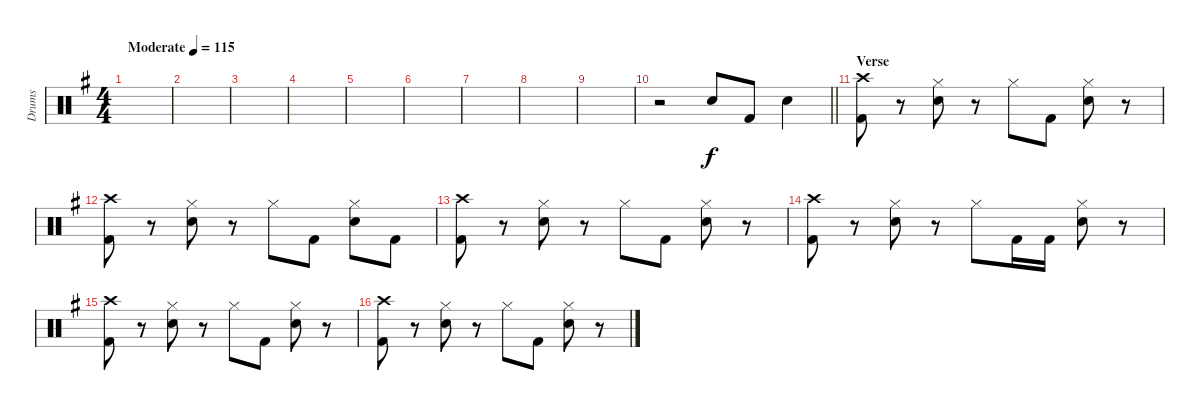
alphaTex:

\track ("Drums" "Drums") {instrument percussion}
\staff {score}
\articulation defaults
\ts (4 4)
\tempo (115 "Moderate")
\clef neutral
\ks g
|
|
|
|
|
|
|
|
|
\barLineRight lightlight
r.2 "Electric Snare (hit)".8 "Kick (hit) 2".8 "Electric Snare (hit)".4 |
\section ("" "Verse")
("Crash high (hit)" "Kick (hit) 2").8 r.8 ("Hi-Hat (closed)" "Electric Snare (hit)").8 r.8 "Hi-Hat (closed)".8 "Kick (hit) 2".8 ("Hi-Hat (closed)" "Electric Snare (hit)").8 r.8 |
("Crash high (hit)" "Kick (hit) 2").8 r.8 ("Hi-Hat (closed)" "Electric Snare (hit)").8 r.8 "Hi-Hat (closed)".8 "Kick (hit) 2".8 ("Hi-Hat (closed)" "Electric Snare (hit)").8 "Kick (hit) 2".8 |
("Crash high (hit)" "Kick (hit) 2").8 r.8 ("Hi-Hat (closed)" "Electric Snare (hit)").8 r.8 "Hi-Hat (closed)".8 "Kick (hit) 2".8 ("Hi-Hat (closed)" "Electric Snare (hit)").8 r.8 |
("Crash high (hit)" "Kick (hit) 2").8 r.8 ("Hi-Hat (closed)" "Electric Snare (hit)").8 r.8 "Hi-Hat (closed)".8 "Kick (hit) 2".16 "Kick (hit) 2".16 ("Hi-Hat (closed)" "Electric Snare (hit)").8 r.8 |
("Crash high (hit)" "Kick (hit) 2").8 r.8 ("Hi-Hat (closed)" "Electric Snare (hit)").8 r.8 "Hi-Hat (closed)".8 "Kick (hit) 2".8 ("Hi-Hat (closed)" "Electric Snare (hit)").8 r.8 |
("Crash high (hit)" "Kick (hit) 2").8 r.8 ("Hi-Hat (closed)" "Electric Snare (hit)").8 r.8 "Hi-Hat (closed)".8 "Kick (hit) 2".8 ("Hi-Hat (closed)" "Electric Snare (hit)").8 r.8
